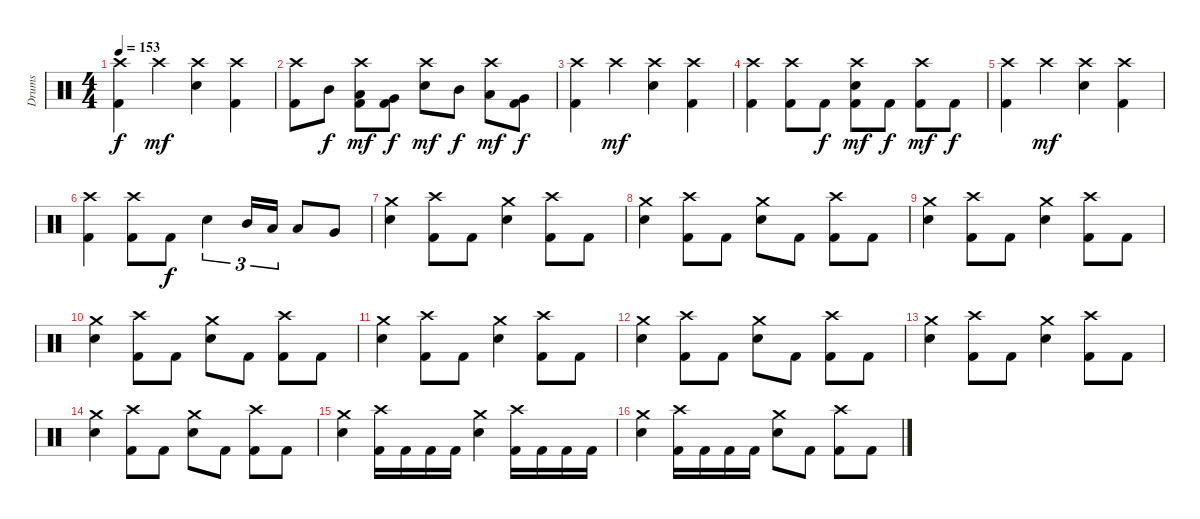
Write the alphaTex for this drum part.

\track ("Drums" "Drums") {instrument percussion}
\staff {score}
\articulation defaults
\ts (4 4)
\tempo 153
\clef neutral
\ks c
("Crash high (hit)" "Kick (hit) 2").4{dy f} "Crash high (hit)".4{dy mf} ("Crash high (hit)" "Electric Snare (hit)").4 ("Crash high (hit)" "Kick (hit) 2").4 |
("Crash high (hit)" "Kick (hit) 2").8 "Mid Tom (hit)".8{dy f} ("Crash high (hit)" "Low Tom (hit)" "Kick (hit) 2").8{dy mf} ("Very Low Tom (hit)" "Kick (hit) 2").8{dy f} ("Crash high (hit)" "Electric Snare (hit)").8{dy mf} "Mid Tom (hit)".8{dy f} ("Crash high (hit)" "Low Tom (hit)").8{dy mf} ("Very Low Tom (hit)" "Kick (hit) 2").8{dy f} |
("Crash high (hit)" "Kick (hit) 2").4 "Crash high (hit)".4{dy mf} ("Crash high (hit)" "Electric Snare (hit)").4 ("Crash high (hit)" "Kick (hit) 2").4 |
("Crash high (hit)" "Kick (hit) 2").4 ("Crash high (hit)" "Kick (hit) 2").8 "Kick (hit) 2".8{dy f} ("Crash high (hit)" "Electric Snare (hit)" "Kick (hit) 2").8{dy mf} "Kick (hit) 2".8{dy f} ("Crash high (hit)" "Kick (hit) 2").8{dy mf} "Kick (hit) 2".8{dy f} |
("Crash high (hit)" "Kick (hit) 2").4 "Crash high (hit)".4{dy mf} ("Crash high (hit)" "Electric Snare (hit)").4 ("Crash high (hit)" "Kick (hit) 2").4 |
("Crash high (hit)" "Kick (hit) 2").4 ("Crash high (hit)" "Kick (hit) 2").8 "Kick (hit) 2".8{dy f} "Electric Snare (hit)".4{tu (3 2)} "Mid Tom (hit)".16{tu (3 2)} "Low Tom (hit)".16{tu (3 2)} "Low Tom (hit)".8 "Very Low Tom (hit)".8 |
("Crash medium (hit)" "Electric Snare (hit)").4 ("Crash high (hit)" "Kick (hit) 2").8 "Kick (hit) 2".8 ("Crash medium (hit)" "Electric Snare (hit)").4 ("Crash high (hit)" "Kick (hit) 2").8 "Kick (hit) 2".8 |
("Crash medium (hit)" "Electric Snare (hit)").4 ("Crash high (hit)" "Kick (hit) 2").8 "Kick (hit) 2".8 ("Crash medium (hit)" "Electric Snare (hit)").8 "Kick (hit) 2".8 ("Crash high (hit)" "Kick (hit) 2").8 "Kick (hit) 2".8 |
("Crash medium (hit)" "Electric Snare (hit)").4 ("Crash high (hit)" "Kick (hit) 2").8 "Kick (hit) 2".8 ("Crash medium (hit)" "Electric Snare (hit)").4 ("Crash high (hit)" "Kick (hit) 2").8 "Kick (hit) 2".8 |
("Crash medium (hit)" "Electric Snare (hit)").4 ("Crash high (hit)" "Kick (hit) 2").8 "Kick (hit) 2".8 ("Crash medium (hit)" "Electric Snare (hit)").8 "Kick (hit) 2".8 ("Crash high (hit)" "Kick (hit) 2").8 "Kick (hit) 2".8 |
("Crash medium (hit)" "Electric Snare (hit)").4 ("Crash high (hit)" "Kick (hit) 2").8 "Kick (hit) 2".8 ("Crash medium (hit)" "Electric Snare (hit)").4 ("Crash high (hit)" "Kick (hit) 2").8 "Kick (hit) 2".8 |
("Crash medium (hit)" "Electric Snare (hit)").4 ("Crash high (hit)" "Kick (hit) 2").8 "Kick (hit) 2".8 ("Crash medium (hit)" "Electric Snare (hit)").8 "Kick (hit) 2".8 ("Crash high (hit)" "Kick (hit) 2").8 "Kick (hit) 2".8 |
("Crash medium (hit)" "Electric Snare (hit)").4 ("Crash high (hit)" "Kick (hit) 2").8 "Kick (hit) 2".8 ("Crash medium (hit)" "Electric Snare (hit)").4 ("Crash high (hit)" "Kick (hit) 2").8 "Kick (hit) 2".8 |
("Crash medium (hit)" "Electric Snare (hit)").4 ("Crash high (hit)" "Kick (hit) 2").8 "Kick (hit) 2".8 ("Crash medium (hit)" "Electric Snare (hit)").8 "Kick (hit) 2".8 ("Crash high (hit)" "Kick (hit) 2").8 "Kick (hit) 2".8 |
("Crash medium (hit)" "Electric Snare (hit)").4 ("Crash high (hit)" "Kick (hit) 2").16 "Kick (hit) 2".16 "Kick (hit) 2".16 "Kick (hit) 2".16 ("Crash medium (hit)" "Electric Snare (hit)").4 ("Crash high (hit)" "Kick (hit) 2").16 "Kick (hit) 2".16 "Kick (hit) 2".16 "Kick (hit) 2".16 |
("Crash medium (hit)" "Electric Snare (hit)").4 ("Crash high (hit)" "Kick (hit) 2").16 "Kick (hit) 2".16 "Kick (hit) 2".16 "Kick (hit) 2".16 ("Crash medium (hit)" "Electric Snare (hit)").8 "Kick (hit) 2".8 ("Crash high (hit)" "Kick (hit) 2").8 "Kick (hit) 2".8
